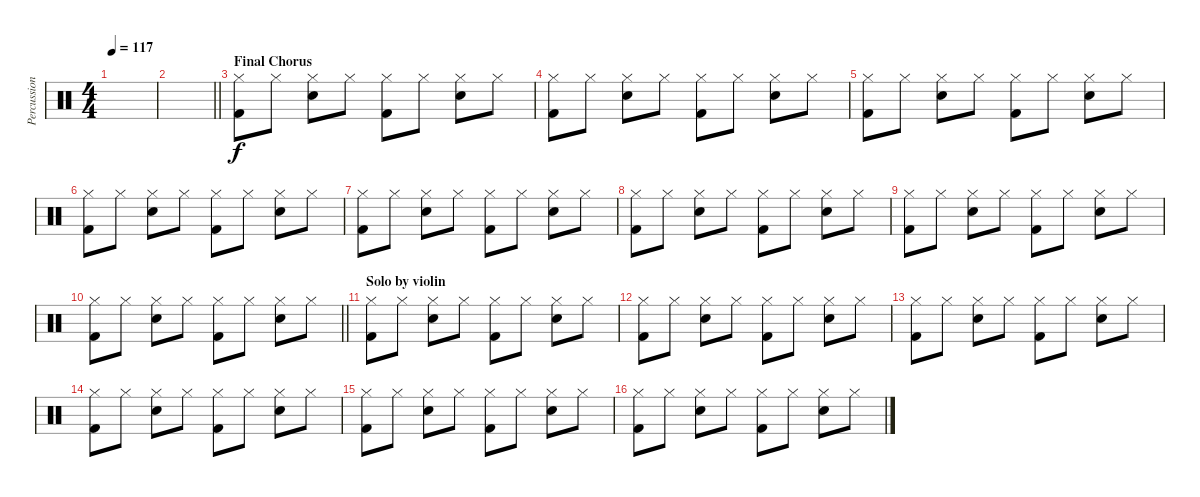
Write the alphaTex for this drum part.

\track ("Percussion" "Percussion") {instrument percussion}
\staff {score}
\articulation defaults
\ts (4 4)
\tempo 117
\clef neutral
\ks c
|
\barLineRight lightlight
|
\section ("" "Final Chorus")
("Kick (hit) 2" "Hi-Hat (closed)").8 "Hi-Hat (closed)".8 ("Hi-Hat (closed)" "Snare (hit) 2").8 "Hi-Hat (closed)".8 ("Kick (hit) 2" "Hi-Hat (closed)").8 "Hi-Hat (closed)".8 ("Hi-Hat (closed)" "Snare (hit) 2").8 "Hi-Hat (closed)".8 |
("Kick (hit) 2" "Hi-Hat (closed)").8 "Hi-Hat (closed)".8 ("Hi-Hat (closed)" "Snare (hit) 2").8 "Hi-Hat (closed)".8 ("Kick (hit) 2" "Hi-Hat (closed)").8 "Hi-Hat (closed)".8 ("Hi-Hat (closed)" "Snare (hit) 2").8 "Hi-Hat (closed)".8 |
("Kick (hit) 2" "Hi-Hat (closed)").8 "Hi-Hat (closed)".8 ("Hi-Hat (closed)" "Snare (hit) 2").8 "Hi-Hat (closed)".8 ("Kick (hit) 2" "Hi-Hat (closed)").8 "Hi-Hat (closed)".8 ("Hi-Hat (closed)" "Snare (hit) 2").8 "Hi-Hat (closed)".8 |
("Kick (hit) 2" "Hi-Hat (closed)").8 "Hi-Hat (closed)".8 ("Hi-Hat (closed)" "Snare (hit) 2").8 "Hi-Hat (closed)".8 ("Kick (hit) 2" "Hi-Hat (closed)").8 "Hi-Hat (closed)".8 ("Hi-Hat (closed)" "Snare (hit) 2").8 "Hi-Hat (closed)".8 |
("Kick (hit) 2" "Hi-Hat (closed)").8 "Hi-Hat (closed)".8 ("Hi-Hat (closed)" "Snare (hit) 2").8 "Hi-Hat (closed)".8 ("Kick (hit) 2" "Hi-Hat (closed)").8 "Hi-Hat (closed)".8 ("Hi-Hat (closed)" "Snare (hit) 2").8 "Hi-Hat (closed)".8 |
("Kick (hit) 2" "Hi-Hat (closed)").8 "Hi-Hat (closed)".8 ("Hi-Hat (closed)" "Snare (hit) 2").8 "Hi-Hat (closed)".8 ("Kick (hit) 2" "Hi-Hat (closed)").8 "Hi-Hat (closed)".8 ("Hi-Hat (closed)" "Snare (hit) 2").8 "Hi-Hat (closed)".8 |
("Kick (hit) 2" "Hi-Hat (closed)").8 "Hi-Hat (closed)".8 ("Hi-Hat (closed)" "Snare (hit) 2").8 "Hi-Hat (closed)".8 ("Kick (hit) 2" "Hi-Hat (closed)").8 "Hi-Hat (closed)".8 ("Hi-Hat (closed)" "Snare (hit) 2").8 "Hi-Hat (closed)".8 |
\barLineRight lightlight
("Kick (hit) 2" "Hi-Hat (closed)").8 "Hi-Hat (closed)".8 ("Hi-Hat (closed)" "Snare (hit) 2").8 "Hi-Hat (closed)".8 ("Kick (hit) 2" "Hi-Hat (closed)").8 "Hi-Hat (closed)".8 ("Hi-Hat (closed)" "Snare (hit) 2").8 "Hi-Hat (closed)".8 |
\section ("" "Solo by violin")
("Kick (hit) 2" "Hi-Hat (closed)").8 "Hi-Hat (closed)".8 ("Hi-Hat (closed)" "Snare (hit) 2").8 "Hi-Hat (closed)".8 ("Kick (hit) 2" "Hi-Hat (closed)").8 "Hi-Hat (closed)".8 ("Hi-Hat (closed)" "Snare (hit) 2").8 "Hi-Hat (closed)".8 |
("Kick (hit) 2" "Hi-Hat (closed)").8 "Hi-Hat (closed)".8 ("Hi-Hat (closed)" "Snare (hit) 2").8 "Hi-Hat (closed)".8 ("Kick (hit) 2" "Hi-Hat (closed)").8 "Hi-Hat (closed)".8 ("Hi-Hat (closed)" "Snare (hit) 2").8 "Hi-Hat (closed)".8 |
("Kick (hit) 2" "Hi-Hat (closed)").8 "Hi-Hat (closed)".8 ("Hi-Hat (closed)" "Snare (hit) 2").8 "Hi-Hat (closed)".8 ("Kick (hit) 2" "Hi-Hat (closed)").8 "Hi-Hat (closed)".8 ("Hi-Hat (closed)" "Snare (hit) 2").8 "Hi-Hat (closed)".8 |
("Kick (hit) 2" "Hi-Hat (closed)").8 "Hi-Hat (closed)".8 ("Hi-Hat (closed)" "Snare (hit) 2").8 "Hi-Hat (closed)".8 ("Kick (hit) 2" "Hi-Hat (closed)").8 "Hi-Hat (closed)".8 ("Hi-Hat (closed)" "Snare (hit) 2").8 "Hi-Hat (closed)".8 |
("Kick (hit) 2" "Hi-Hat (closed)").8 "Hi-Hat (closed)".8 ("Hi-Hat (closed)" "Snare (hit) 2").8 "Hi-Hat (closed)".8 ("Kick (hit) 2" "Hi-Hat (closed)").8 "Hi-Hat (closed)".8 ("Hi-Hat (closed)" "Snare (hit) 2").8 "Hi-Hat (closed)".8 |
("Kick (hit) 2" "Hi-Hat (closed)").8 "Hi-Hat (closed)".8 ("Hi-Hat (closed)" "Snare (hit) 2").8 "Hi-Hat (closed)".8 ("Kick (hit) 2" "Hi-Hat (closed)").8 "Hi-Hat (closed)".8 ("Hi-Hat (closed)" "Snare (hit) 2").8 "Hi-Hat (closed)".8
